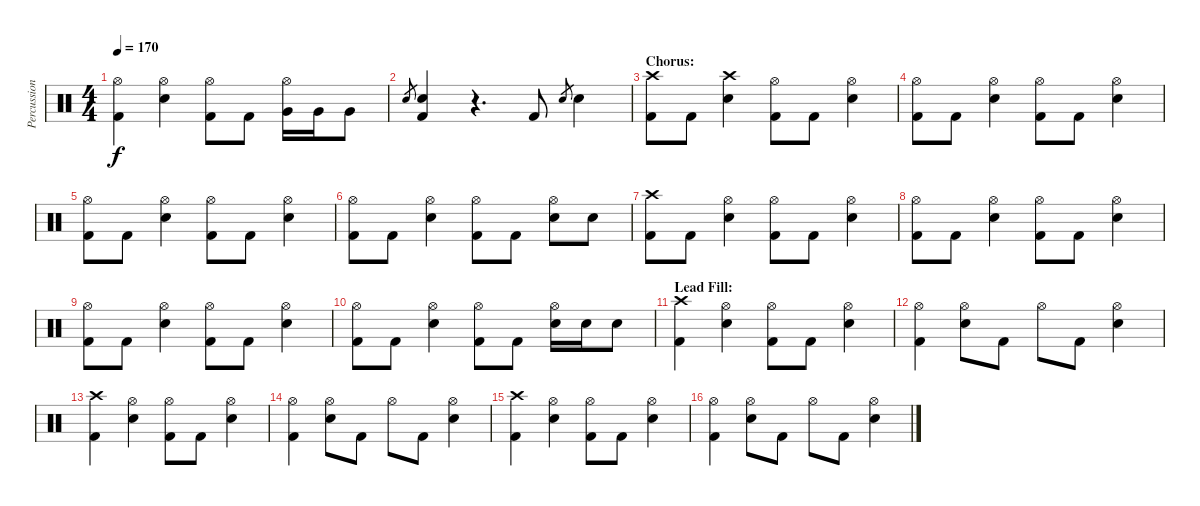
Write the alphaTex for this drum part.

\track ("Percussion" "Percussion") {instrument percussion}
\staff {score}
\articulation defaults
\ts (4 4)
\tempo 170
\clef neutral
\ks c
("Hi-Hat (open)" "Kick (hit) 2").4{dy f} ("Hi-Hat (open)" "Snare (hit) 2").4 ("Hi-Hat (open)" "Kick (hit) 2").8 "Kick (hit) 2".8 ("Hi-Hat (open)" "Very Low Tom (hit)").16 "Very Low Tom (hit)".16 "Very Low Tom (hit)".8 |
"Snare (hit) 2".8{gr} ("Snare (hit) 2" "Kick (hit) 2").4 r.4{d} "Kick (hit) 2".8 "Snare (hit) 2".8{gr} "Snare (hit) 2".4 |
\section ("" "Chorus:")
("Crash high (hit)" "Kick (hit) 2").8 "Kick (hit) 2".8 ("Crash high (hit)" "Snare (hit) 2").4 ("Hi-Hat (open)" "Kick (hit) 2").8 "Kick (hit) 2".8 ("Hi-Hat (open)" "Snare (hit) 2").4 |
("Hi-Hat (open)" "Kick (hit) 2").8 "Kick (hit) 2".8 ("Hi-Hat (open)" "Snare (hit) 2").4 ("Hi-Hat (open)" "Kick (hit) 2").8 "Kick (hit) 2".8 ("Hi-Hat (open)" "Snare (hit) 2").4 |
("Hi-Hat (open)" "Kick (hit) 2").8 "Kick (hit) 2".8 ("Hi-Hat (open)" "Snare (hit) 2").4 ("Hi-Hat (open)" "Kick (hit) 2").8 "Kick (hit) 2".8 ("Hi-Hat (open)" "Snare (hit) 2").4 |
("Hi-Hat (open)" "Kick (hit) 2").8 "Kick (hit) 2".8 ("Hi-Hat (open)" "Snare (hit) 2").4 ("Hi-Hat (open)" "Kick (hit) 2").8 "Kick (hit) 2".8 ("Hi-Hat (open)" "Snare (hit) 2").8 "Snare (hit) 2".8 |
("Crash high (hit)" "Kick (hit) 2").8 "Kick (hit) 2".8 ("Hi-Hat (open)" "Snare (hit) 2").4 ("Hi-Hat (open)" "Kick (hit) 2").8 "Kick (hit) 2".8 ("Hi-Hat (open)" "Snare (hit) 2").4 |
("Hi-Hat (open)" "Kick (hit) 2").8 "Kick (hit) 2".8 ("Hi-Hat (open)" "Snare (hit) 2").4 ("Hi-Hat (open)" "Kick (hit) 2").8 "Kick (hit) 2".8 ("Hi-Hat (open)" "Snare (hit) 2").4 |
("Hi-Hat (open)" "Kick (hit) 2").8 "Kick (hit) 2".8 ("Hi-Hat (open)" "Snare (hit) 2").4 ("Hi-Hat (open)" "Kick (hit) 2").8 "Kick (hit) 2".8 ("Hi-Hat (open)" "Snare (hit) 2").4 |
("Hi-Hat (open)" "Kick (hit) 2").8 "Kick (hit) 2".8 ("Hi-Hat (open)" "Snare (hit) 2").4 ("Hi-Hat (open)" "Kick (hit) 2").8 "Kick (hit) 2".8 ("Hi-Hat (open)" "Snare (hit) 2").16 "Snare (hit) 2".16 "Snare (hit) 2".8 |
\section ("" "Lead Fill:")
("Crash high (hit)" "Kick (hit) 2").4 ("Hi-Hat (open)" "Snare (hit) 2").4 ("Hi-Hat (open)" "Kick (hit) 2").8 "Kick (hit) 2".8 ("Hi-Hat (open)" "Snare (hit) 2").4 |
("Hi-Hat (open)" "Kick (hit) 2").4 ("Hi-Hat (open)" "Snare (hit) 2").8 "Kick (hit) 2".8 "Hi-Hat (open)".8 "Kick (hit) 2".8 ("Hi-Hat (open)" "Snare (hit) 2").4 |
("Crash high (hit)" "Kick (hit) 2").4 ("Hi-Hat (open)" "Snare (hit) 2").4 ("Hi-Hat (open)" "Kick (hit) 2").8 "Kick (hit) 2".8 ("Hi-Hat (open)" "Snare (hit) 2").4 |
("Hi-Hat (open)" "Kick (hit) 2").4 ("Hi-Hat (open)" "Snare (hit) 2").8 "Kick (hit) 2".8 "Hi-Hat (open)".8 "Kick (hit) 2".8 ("Hi-Hat (open)" "Snare (hit) 2").4 |
("Crash high (hit)" "Kick (hit) 2").4 ("Hi-Hat (open)" "Snare (hit) 2").4 ("Hi-Hat (open)" "Kick (hit) 2").8 "Kick (hit) 2".8 ("Hi-Hat (open)" "Snare (hit) 2").4 |
("Hi-Hat (open)" "Kick (hit) 2").4 ("Hi-Hat (open)" "Snare (hit) 2").8 "Kick (hit) 2".8 "Hi-Hat (open)".8 "Kick (hit) 2".8 ("Hi-Hat (open)" "Snare (hit) 2").4
